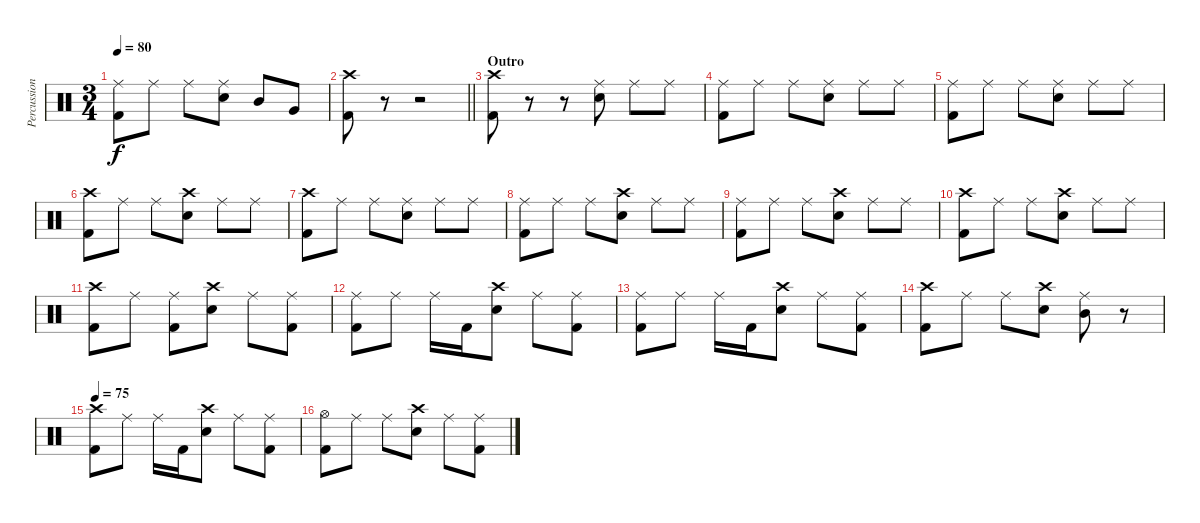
\track ("Percussion" "Percussion") {instrument percussion}
\staff {score}
\articulation defaults
\ts (3 4)
\tempo 80
\clef neutral
\ks c
("Ride (middle)" "Kick (hit) 2").8{dy f} "Ride (middle)".8 "Ride (middle)".8 ("Ride (middle)" "Snare (hit) 2").8 "Mid Tom (hit)".8 "Very Low Tom (hit)".8 |
\barLineRight lightlight
("Crash high (hit)" "Kick (hit) 2").8 r.8{volume 0} r.2 |
\section ("" "Outro")
("Crash high (hit)" "Kick (hit) 2").8{volume 13} r.8 r.8 ("Ride (middle)" "Snare (hit) 2").8 "Ride (middle)".8 "Ride (middle)".8 |
("Ride (middle)" "Kick (hit) 2").8 "Ride (middle)".8 "Ride (middle)".8 ("Ride (middle)" "Snare (hit) 2").8 "Ride (middle)".8 "Ride (middle)".8 |
("Ride (middle)" "Kick (hit) 2").8 "Ride (middle)".8 "Ride (middle)".8 ("Ride (middle)" "Snare (hit) 2").8 "Ride (middle)".8 "Ride (middle)".8 |
("Crash high (hit)" "Kick (hit) 2").8 "Ride (middle)".8 "Ride (middle)".8 ("Crash high (hit)" "Snare (hit) 2").8 "Ride (middle)".8 "Ride (middle)".8 |
("Crash high (hit)" "Kick (hit) 2").8 "Ride (middle)".8 "Ride (middle)".8 ("Ride (middle)" "Snare (hit) 2").8 "Ride (middle)".8 "Ride (middle)".8 |
("Ride (middle)" "Kick (hit) 2").8 "Ride (middle)".8 "Ride (middle)".8 ("Crash high (hit)" "Snare (hit) 2").8 "Ride (middle)".8 "Ride (middle)".8 |
("Ride (middle)" "Kick (hit) 2").8 "Ride (middle)".8 "Ride (middle)".8 ("Crash high (hit)" "Snare (hit) 2").8 "Ride (middle)".8 "Ride (middle)".8 |
("Crash high (hit)" "Kick (hit) 2").8 "Ride (middle)".8 "Ride (middle)".8 ("Crash high (hit)" "Snare (hit) 2").8 "Ride (middle)".8 "Ride (middle)".8 |
("Crash high (hit)" "Kick (hit) 2").8 "Ride (middle)".8 ("Ride (middle)" "Kick (hit) 2").8 ("Crash high (hit)" "Snare (hit) 2").8 "Ride (middle)".8 ("Ride (middle)" "Kick (hit) 2").8 |
("Ride (middle)" "Kick (hit) 2").8 "Ride (middle)".8 "Ride (middle)".16 "Kick (hit) 2".16 ("Crash high (hit)" "Snare (hit) 2").8 "Ride (middle)".8 ("Ride (middle)" "Kick (hit) 2").8 |
("Ride (middle)" "Kick (hit) 2").8 "Ride (middle)".8 "Ride (middle)".16 "Kick (hit) 2".16 ("Crash high (hit)" "Snare (hit) 2").8 "Ride (middle)".8 ("Ride (middle)" "Kick (hit) 2").8 |
("Crash high (hit)" "Kick (hit) 2").8 "Ride (middle)".8 "Ride (middle)".8 ("Crash high (hit)" "Snare (hit) 2").8 ("Ride (middle)" "Mid Tom (hit)").8 r.8 |
\tempo 75
("Crash high (hit)" "Kick (hit) 2").8 "Ride (middle)".8 "Ride (middle)".16 "Kick (hit) 2".16 ("Crash high (hit)" "Snare (hit) 2").8 "Ride (middle)".8 ("Ride (middle)" "Kick (hit) 2").8 |
("Hi-Hat (open)" "Kick (hit) 2").8 "Ride (middle)".8 "Ride (middle)".8 ("Crash high (hit)" "Snare (hit) 2").8 "Ride (middle)".8 ("Ride (middle)" "Kick (hit) 2").8
